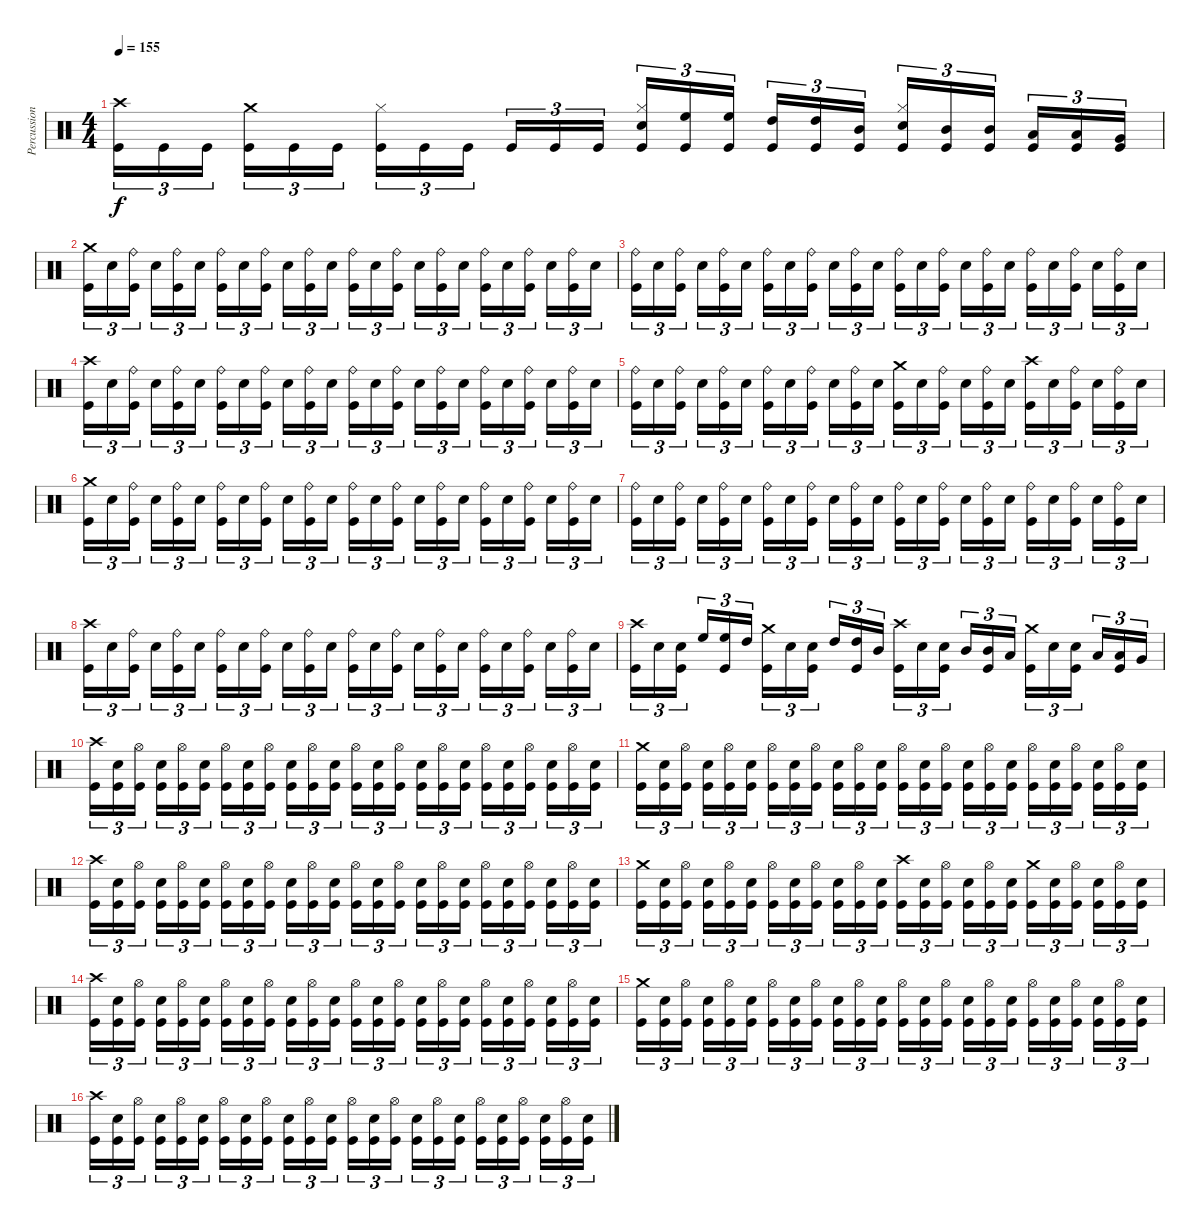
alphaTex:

\track ("Percussion" "Percussion") {instrument percussion}
\staff {score}
\articulation defaults
\ts (4 4)
\tempo 155
\clef neutral
\ks c
("Crash high (hit)" "Kick (hit)").16{tu (3 2) dy f} "Kick (hit)".16{tu (3 2)} "Kick (hit)".16{tu (3 2) beam splitsecondary} ("Crash medium (hit)" "Kick (hit)").16{tu (3 2)} "Kick (hit)".16{tu (3 2)} "Kick (hit)".16{tu (3 2)} ("Hi-Hat (closed)" "Kick (hit)").16{tu (3 2)} "Kick (hit)".16{tu (3 2)} "Kick (hit)".16{tu (3 2) beam splitsecondary} "Kick (hit)".16{tu (3 2)} "Kick (hit)".16{tu (3 2)} "Kick (hit)".16{tu (3 2)} ("Hi-Hat (closed)" "Snare (hit) 2" "Kick (hit)").16{tu (3 2)} ("High Floor Tom (hit)" "Kick (hit)").16{tu (3 2)} ("High Floor Tom (hit)" "Kick (hit)").16{tu (3 2) beam splitsecondary} ("High Tom (hit)" "Kick (hit)").16{tu (3 2)} ("High Tom (hit)" "Kick (hit)").16{tu (3 2)} ("Mid Tom (hit)" "Kick (hit)").16{tu (3 2)} ("Hi-Hat (closed)" "Snare (hit) 2" "Kick (hit)").16{tu (3 2)} ("Mid Tom (hit)" "Kick (hit)").16{tu (3 2)} ("Mid Tom (hit)" "Kick (hit)").16{tu (3 2) beam splitsecondary} ("Low Tom (hit)" "Kick (hit)").16{tu (3 2)} ("Low Tom (hit)" "Kick (hit)").16{tu (3 2)} ("Very Low Tom (hit)" "Kick (hit)").16{tu (3 2)} |
("Crash medium (hit)" "Kick (hit)").16{tu (3 2)} "Snare (hit) 2".16{tu (3 2)} ("Ride (bell)" "Kick (hit)").16{tu (3 2) beam splitsecondary} "Snare (hit) 2".16{tu (3 2)} ("Ride (bell)" "Kick (hit)").16{tu (3 2)} "Snare (hit) 2".16{tu (3 2)} ("Ride (bell)" "Kick (hit)").16{tu (3 2)} "Snare (hit) 2".16{tu (3 2)} ("Ride (bell)" "Kick (hit)").16{tu (3 2) beam splitsecondary} "Snare (hit) 2".16{tu (3 2)} ("Ride (bell)" "Kick (hit)").16{tu (3 2)} "Snare (hit) 2".16{tu (3 2)} ("Ride (bell)" "Kick (hit)").16{tu (3 2)} "Snare (hit) 2".16{tu (3 2)} ("Ride (bell)" "Kick (hit)").16{tu (3 2) beam splitsecondary} "Snare (hit) 2".16{tu (3 2)} ("Ride (bell)" "Kick (hit)").16{tu (3 2)} "Snare (hit) 2".16{tu (3 2)} ("Ride (bell)" "Kick (hit)").16{tu (3 2)} "Snare (hit) 2".16{tu (3 2)} ("Ride (bell)" "Kick (hit)").16{tu (3 2) beam splitsecondary} "Snare (hit) 2".16{tu (3 2)} ("Ride (bell)" "Kick (hit)").16{tu (3 2)} "Snare (hit) 2".16{tu (3 2)} |
("Ride (bell)" "Kick (hit)").16{tu (3 2)} "Snare (hit) 2".16{tu (3 2)} ("Ride (bell)" "Kick (hit)").16{tu (3 2) beam splitsecondary} "Snare (hit) 2".16{tu (3 2)} ("Ride (bell)" "Kick (hit)").16{tu (3 2)} "Snare (hit) 2".16{tu (3 2)} ("Ride (bell)" "Kick (hit)").16{tu (3 2)} "Snare (hit) 2".16{tu (3 2)} ("Ride (bell)" "Kick (hit)").16{tu (3 2) beam splitsecondary} "Snare (hit) 2".16{tu (3 2)} ("Ride (bell)" "Kick (hit)").16{tu (3 2)} "Snare (hit) 2".16{tu (3 2)} ("Ride (bell)" "Kick (hit)").16{tu (3 2)} "Snare (hit) 2".16{tu (3 2)} ("Ride (bell)" "Kick (hit)").16{tu (3 2) beam splitsecondary} "Snare (hit) 2".16{tu (3 2)} ("Ride (bell)" "Kick (hit)").16{tu (3 2)} "Snare (hit) 2".16{tu (3 2)} ("Ride (bell)" "Kick (hit)").16{tu (3 2)} "Snare (hit) 2".16{tu (3 2)} ("Ride (bell)" "Kick (hit)").16{tu (3 2) beam splitsecondary} "Snare (hit) 2".16{tu (3 2)} ("Ride (bell)" "Kick (hit)").16{tu (3 2)} "Snare (hit) 2".16{tu (3 2)} |
("Crash high (hit)" "Kick (hit)").16{tu (3 2)} "Snare (hit) 2".16{tu (3 2)} ("Ride (bell)" "Kick (hit)").16{tu (3 2) beam splitsecondary} "Snare (hit) 2".16{tu (3 2)} ("Ride (bell)" "Kick (hit)").16{tu (3 2)} "Snare (hit) 2".16{tu (3 2)} ("Ride (bell)" "Kick (hit)").16{tu (3 2)} "Snare (hit) 2".16{tu (3 2)} ("Ride (bell)" "Kick (hit)").16{tu (3 2) beam splitsecondary} "Snare (hit) 2".16{tu (3 2)} ("Ride (bell)" "Kick (hit)").16{tu (3 2)} "Snare (hit) 2".16{tu (3 2)} ("Ride (bell)" "Kick (hit)").16{tu (3 2)} "Snare (hit) 2".16{tu (3 2)} ("Ride (bell)" "Kick (hit)").16{tu (3 2) beam splitsecondary} "Snare (hit) 2".16{tu (3 2)} ("Ride (bell)" "Kick (hit)").16{tu (3 2)} "Snare (hit) 2".16{tu (3 2)} ("Ride (bell)" "Kick (hit)").16{tu (3 2)} "Snare (hit) 2".16{tu (3 2)} ("Ride (bell)" "Kick (hit)").16{tu (3 2) beam splitsecondary} "Snare (hit) 2".16{tu (3 2)} ("Ride (bell)" "Kick (hit)").16{tu (3 2)} "Snare (hit) 2".16{tu (3 2)} |
("Ride (bell)" "Kick (hit)").16{tu (3 2)} "Snare (hit) 2".16{tu (3 2)} ("Ride (bell)" "Kick (hit)").16{tu (3 2) beam splitsecondary} "Snare (hit) 2".16{tu (3 2)} ("Ride (bell)" "Kick (hit)").16{tu (3 2)} "Snare (hit) 2".16{tu (3 2)} ("Ride (bell)" "Kick (hit)").16{tu (3 2)} "Snare (hit) 2".16{tu (3 2)} ("Ride (bell)" "Kick (hit)").16{tu (3 2) beam splitsecondary} "Snare (hit) 2".16{tu (3 2)} ("Ride (bell)" "Kick (hit)").16{tu (3 2)} "Snare (hit) 2".16{tu (3 2)} ("Crash medium (hit)" "Kick (hit)").16{tu (3 2)} "Snare (hit) 2".16{tu (3 2)} ("Ride (bell)" "Kick (hit)").16{tu (3 2) beam splitsecondary} "Snare (hit) 2".16{tu (3 2)} ("Ride (bell)" "Kick (hit)").16{tu (3 2)} "Snare (hit) 2".16{tu (3 2)} ("Crash high (hit)" "Kick (hit)").16{tu (3 2)} "Snare (hit) 2".16{tu (3 2)} ("Ride (bell)" "Kick (hit)").16{tu (3 2) beam splitsecondary} "Snare (hit) 2".16{tu (3 2)} ("Ride (bell)" "Kick (hit)").16{tu (3 2)} "Snare (hit) 2".16{tu (3 2)} |
("Crash medium (hit)" "Kick (hit)").16{tu (3 2)} "Snare (hit) 2".16{tu (3 2)} ("Ride (bell)" "Kick (hit)").16{tu (3 2) beam splitsecondary} "Snare (hit) 2".16{tu (3 2)} ("Ride (bell)" "Kick (hit)").16{tu (3 2)} "Snare (hit) 2".16{tu (3 2)} ("Ride (bell)" "Kick (hit)").16{tu (3 2)} "Snare (hit) 2".16{tu (3 2)} ("Ride (bell)" "Kick (hit)").16{tu (3 2) beam splitsecondary} "Snare (hit) 2".16{tu (3 2)} ("Ride (bell)" "Kick (hit)").16{tu (3 2)} "Snare (hit) 2".16{tu (3 2)} ("Ride (bell)" "Kick (hit)").16{tu (3 2)} "Snare (hit) 2".16{tu (3 2)} ("Ride (bell)" "Kick (hit)").16{tu (3 2) beam splitsecondary} "Snare (hit) 2".16{tu (3 2)} ("Ride (bell)" "Kick (hit)").16{tu (3 2)} "Snare (hit) 2".16{tu (3 2)} ("Ride (bell)" "Kick (hit)").16{tu (3 2)} "Snare (hit) 2".16{tu (3 2)} ("Ride (bell)" "Kick (hit)").16{tu (3 2) beam splitsecondary} "Snare (hit) 2".16{tu (3 2)} ("Ride (bell)" "Kick (hit)").16{tu (3 2)} "Snare (hit) 2".16{tu (3 2)} |
("Ride (bell)" "Kick (hit)").16{tu (3 2)} "Snare (hit) 2".16{tu (3 2)} ("Ride (bell)" "Kick (hit)").16{tu (3 2) beam splitsecondary} "Snare (hit) 2".16{tu (3 2)} ("Ride (bell)" "Kick (hit)").16{tu (3 2)} "Snare (hit) 2".16{tu (3 2)} ("Ride (bell)" "Kick (hit)").16{tu (3 2)} "Snare (hit) 2".16{tu (3 2)} ("Ride (bell)" "Kick (hit)").16{tu (3 2) beam splitsecondary} "Snare (hit) 2".16{tu (3 2)} ("Ride (bell)" "Kick (hit)").16{tu (3 2)} "Snare (hit) 2".16{tu (3 2)} ("Ride (bell)" "Kick (hit)").16{tu (3 2)} "Snare (hit) 2".16{tu (3 2)} ("Ride (bell)" "Kick (hit)").16{tu (3 2) beam splitsecondary} "Snare (hit) 2".16{tu (3 2)} ("Ride (bell)" "Kick (hit)").16{tu (3 2)} "Snare (hit) 2".16{tu (3 2)} ("Ride (bell)" "Kick (hit)").16{tu (3 2)} "Snare (hit) 2".16{tu (3 2)} ("Ride (bell)" "Kick (hit)").16{tu (3 2) beam splitsecondary} "Snare (hit) 2".16{tu (3 2)} ("Ride (bell)" "Kick (hit)").16{tu (3 2)} "Snare (hit) 2".16{tu (3 2)} |
("Crash high (hit)" "Kick (hit)").16{tu (3 2)} "Snare (hit) 2".16{tu (3 2)} ("Ride (bell)" "Kick (hit)").16{tu (3 2) beam splitsecondary} "Snare (hit) 2".16{tu (3 2)} ("Ride (bell)" "Kick (hit)").16{tu (3 2)} "Snare (hit) 2".16{tu (3 2)} ("Ride (bell)" "Kick (hit)").16{tu (3 2)} "Snare (hit) 2".16{tu (3 2)} ("Ride (bell)" "Kick (hit)").16{tu (3 2) beam splitsecondary} "Snare (hit) 2".16{tu (3 2)} ("Ride (bell)" "Kick (hit)").16{tu (3 2)} "Snare (hit) 2".16{tu (3 2)} ("Ride (bell)" "Kick (hit)").16{tu (3 2)} "Snare (hit) 2".16{tu (3 2)} ("Ride (bell)" "Kick (hit)").16{tu (3 2) beam splitsecondary} "Snare (hit) 2".16{tu (3 2)} ("Ride (bell)" "Kick (hit)").16{tu (3 2)} "Snare (hit) 2".16{tu (3 2)} ("Ride (bell)" "Kick (hit)").16{tu (3 2)} "Snare (hit) 2".16{tu (3 2)} ("Ride (bell)" "Kick (hit)").16{tu (3 2) beam splitsecondary} "Snare (hit) 2".16{tu (3 2)} ("Ride (bell)" "Kick (hit)").16{tu (3 2)} "Snare (hit) 2".16{tu (3 2)} |
("Crash high (hit)" "Kick (hit)").16{tu (3 2)} "Snare (hit) 2".16{tu (3 2)} ("Snare (hit) 2" "Kick (hit)").16{tu (3 2) beam splitsecondary} "High Floor Tom (hit)".16{tu (3 2)} ("High Floor Tom (hit)" "Kick (hit)").16{tu (3 2)} "High Tom (hit)".16{tu (3 2)} ("Crash medium (hit)" "Kick (hit)").16{tu (3 2)} "Snare (hit) 2".16{tu (3 2)} ("Snare (hit) 2" "Kick (hit)").16{tu (3 2) beam splitsecondary} "High Tom (hit)".16{tu (3 2)} ("High Tom (hit)" "Kick (hit)").16{tu (3 2)} "Mid Tom (hit)".16{tu (3 2)} ("Crash high (hit)" "Kick (hit)").16{tu (3 2)} "Snare (hit) 2".16{tu (3 2)} ("Snare (hit) 2" "Kick (hit)").16{tu (3 2) beam splitsecondary} "Mid Tom (hit)".16{tu (3 2)} ("Mid Tom (hit)" "Kick (hit)").16{tu (3 2)} "Low Tom (hit)".16{tu (3 2)} ("Crash medium (hit)" "Kick (hit)").16{tu (3 2)} "Snare (hit) 2".16{tu (3 2)} ("Snare (hit) 2" "Kick (hit)").16{tu (3 2) beam splitsecondary} "Low Tom (hit)".16{tu (3 2)} ("Low Tom (hit)" "Kick (hit)").16{tu (3 2)} "Very Low Tom (hit)".16{tu (3 2)} |
("Crash high (hit)" "Kick (hit)").16{tu (3 2)} ("Snare (hit) 2" "Kick (hit)").16{tu (3 2)} ("Hi-Hat (open)" "Kick (hit)").16{tu (3 2) beam splitsecondary} ("Snare (hit) 2" "Kick (hit)").16{tu (3 2)} ("Hi-Hat (open)" "Kick (hit)").16{tu (3 2)} ("Snare (hit) 2" "Kick (hit)").16{tu (3 2)} ("Hi-Hat (open)" "Kick (hit)").16{tu (3 2)} ("Snare (hit) 2" "Kick (hit)").16{tu (3 2)} ("Hi-Hat (open)" "Kick (hit)").16{tu (3 2) beam splitsecondary} ("Snare (hit) 2" "Kick (hit)").16{tu (3 2)} ("Hi-Hat (open)" "Kick (hit)").16{tu (3 2)} ("Snare (hit) 2" "Kick (hit)").16{tu (3 2)} ("Hi-Hat (open)" "Kick (hit)").16{tu (3 2)} ("Snare (hit) 2" "Kick (hit)").16{tu (3 2)} ("Hi-Hat (open)" "Kick (hit)").16{tu (3 2) beam splitsecondary} ("Snare (hit) 2" "Kick (hit)").16{tu (3 2)} ("Hi-Hat (open)" "Kick (hit)").16{tu (3 2)} ("Snare (hit) 2" "Kick (hit)").16{tu (3 2)} ("Hi-Hat (open)" "Kick (hit)").16{tu (3 2)} ("Snare (hit) 2" "Kick (hit)").16{tu (3 2)} ("Hi-Hat (open)" "Kick (hit)").16{tu (3 2) beam splitsecondary} ("Snare (hit) 2" "Kick (hit)").16{tu (3 2)} ("Hi-Hat (open)" "Kick (hit)").16{tu (3 2)} ("Snare (hit) 2" "Kick (hit)").16{tu (3 2)} |
("Crash medium (hit)" "Kick (hit)").16{tu (3 2)} ("Snare (hit) 2" "Kick (hit)").16{tu (3 2)} ("Hi-Hat (open)" "Kick (hit)").16{tu (3 2) beam splitsecondary} ("Snare (hit) 2" "Kick (hit)").16{tu (3 2)} ("Hi-Hat (open)" "Kick (hit)").16{tu (3 2)} ("Snare (hit) 2" "Kick (hit)").16{tu (3 2)} ("Hi-Hat (open)" "Kick (hit)").16{tu (3 2)} ("Snare (hit) 2" "Kick (hit)").16{tu (3 2)} ("Hi-Hat (open)" "Kick (hit)").16{tu (3 2) beam splitsecondary} ("Snare (hit) 2" "Kick (hit)").16{tu (3 2)} ("Hi-Hat (open)" "Kick (hit)").16{tu (3 2)} ("Snare (hit) 2" "Kick (hit)").16{tu (3 2)} ("Hi-Hat (open)" "Kick (hit)").16{tu (3 2)} ("Snare (hit) 2" "Kick (hit)").16{tu (3 2)} ("Hi-Hat (open)" "Kick (hit)").16{tu (3 2) beam splitsecondary} ("Snare (hit) 2" "Kick (hit)").16{tu (3 2)} ("Hi-Hat (open)" "Kick (hit)").16{tu (3 2)} ("Snare (hit) 2" "Kick (hit)").16{tu (3 2)} ("Hi-Hat (open)" "Kick (hit)").16{tu (3 2)} ("Snare (hit) 2" "Kick (hit)").16{tu (3 2)} ("Hi-Hat (open)" "Kick (hit)").16{tu (3 2) beam splitsecondary} ("Snare (hit) 2" "Kick (hit)").16{tu (3 2)} ("Hi-Hat (open)" "Kick (hit)").16{tu (3 2)} ("Snare (hit) 2" "Kick (hit)").16{tu (3 2)} |
("Crash high (hit)" "Kick (hit)").16{tu (3 2)} ("Snare (hit) 2" "Kick (hit)").16{tu (3 2)} ("Hi-Hat (open)" "Kick (hit)").16{tu (3 2) beam splitsecondary} ("Snare (hit) 2" "Kick (hit)").16{tu (3 2)} ("Hi-Hat (open)" "Kick (hit)").16{tu (3 2)} ("Snare (hit) 2" "Kick (hit)").16{tu (3 2)} ("Hi-Hat (open)" "Kick (hit)").16{tu (3 2)} ("Snare (hit) 2" "Kick (hit)").16{tu (3 2)} ("Hi-Hat (open)" "Kick (hit)").16{tu (3 2) beam splitsecondary} ("Snare (hit) 2" "Kick (hit)").16{tu (3 2)} ("Hi-Hat (open)" "Kick (hit)").16{tu (3 2)} ("Snare (hit) 2" "Kick (hit)").16{tu (3 2)} ("Hi-Hat (open)" "Kick (hit)").16{tu (3 2)} ("Snare (hit) 2" "Kick (hit)").16{tu (3 2)} ("Hi-Hat (open)" "Kick (hit)").16{tu (3 2) beam splitsecondary} ("Snare (hit) 2" "Kick (hit)").16{tu (3 2)} ("Hi-Hat (open)" "Kick (hit)").16{tu (3 2)} ("Snare (hit) 2" "Kick (hit)").16{tu (3 2)} ("Hi-Hat (open)" "Kick (hit)").16{tu (3 2)} ("Snare (hit) 2" "Kick (hit)").16{tu (3 2)} ("Hi-Hat (open)" "Kick (hit)").16{tu (3 2) beam splitsecondary} ("Snare (hit) 2" "Kick (hit)").16{tu (3 2)} ("Hi-Hat (open)" "Kick (hit)").16{tu (3 2)} ("Snare (hit) 2" "Kick (hit)").16{tu (3 2)} |
("Crash medium (hit)" "Kick (hit)").16{tu (3 2)} ("Snare (hit) 2" "Kick (hit)").16{tu (3 2)} ("Hi-Hat (open)" "Kick (hit)").16{tu (3 2) beam splitsecondary} ("Snare (hit) 2" "Kick (hit)").16{tu (3 2)} ("Hi-Hat (open)" "Kick (hit)").16{tu (3 2)} ("Snare (hit) 2" "Kick (hit)").16{tu (3 2)} ("Hi-Hat (open)" "Kick (hit)").16{tu (3 2)} ("Snare (hit) 2" "Kick (hit)").16{tu (3 2)} ("Hi-Hat (open)" "Kick (hit)").16{tu (3 2) beam splitsecondary} ("Snare (hit) 2" "Kick (hit)").16{tu (3 2)} ("Hi-Hat (open)" "Kick (hit)").16{tu (3 2)} ("Snare (hit) 2" "Kick (hit)").16{tu (3 2)} ("Crash high (hit)" "Kick (hit)").16{tu (3 2)} ("Snare (hit) 2" "Kick (hit)").16{tu (3 2)} ("Hi-Hat (open)" "Kick (hit)").16{tu (3 2) beam splitsecondary} ("Snare (hit) 2" "Kick (hit)").16{tu (3 2)} ("Hi-Hat (open)" "Kick (hit)").16{tu (3 2)} ("Snare (hit) 2" "Kick (hit)").16{tu (3 2)} ("Crash medium (hit)" "Kick (hit)").16{tu (3 2)} ("Snare (hit) 2" "Kick (hit)").16{tu (3 2)} ("Hi-Hat (open)" "Kick (hit)").16{tu (3 2) beam splitsecondary} ("Snare (hit) 2" "Kick (hit)").16{tu (3 2)} ("Hi-Hat (open)" "Kick (hit)").16{tu (3 2)} ("Snare (hit) 2" "Kick (hit)").16{tu (3 2)} |
("Crash high (hit)" "Kick (hit)").16{tu (3 2)} ("Snare (hit) 2" "Kick (hit)").16{tu (3 2)} ("Hi-Hat (open)" "Kick (hit)").16{tu (3 2) beam splitsecondary} ("Snare (hit) 2" "Kick (hit)").16{tu (3 2)} ("Hi-Hat (open)" "Kick (hit)").16{tu (3 2)} ("Snare (hit) 2" "Kick (hit)").16{tu (3 2)} ("Hi-Hat (open)" "Kick (hit)").16{tu (3 2)} ("Snare (hit) 2" "Kick (hit)").16{tu (3 2)} ("Hi-Hat (open)" "Kick (hit)").16{tu (3 2) beam splitsecondary} ("Snare (hit) 2" "Kick (hit)").16{tu (3 2)} ("Hi-Hat (open)" "Kick (hit)").16{tu (3 2)} ("Snare (hit) 2" "Kick (hit)").16{tu (3 2)} ("Hi-Hat (open)" "Kick (hit)").16{tu (3 2)} ("Snare (hit) 2" "Kick (hit)").16{tu (3 2)} ("Hi-Hat (open)" "Kick (hit)").16{tu (3 2) beam splitsecondary} ("Snare (hit) 2" "Kick (hit)").16{tu (3 2)} ("Hi-Hat (open)" "Kick (hit)").16{tu (3 2)} ("Snare (hit) 2" "Kick (hit)").16{tu (3 2)} ("Hi-Hat (open)" "Kick (hit)").16{tu (3 2)} ("Snare (hit) 2" "Kick (hit)").16{tu (3 2)} ("Hi-Hat (open)" "Kick (hit)").16{tu (3 2) beam splitsecondary} ("Snare (hit) 2" "Kick (hit)").16{tu (3 2)} ("Hi-Hat (open)" "Kick (hit)").16{tu (3 2)} ("Snare (hit) 2" "Kick (hit)").16{tu (3 2)} |
("Crash medium (hit)" "Kick (hit)").16{tu (3 2)} ("Snare (hit) 2" "Kick (hit)").16{tu (3 2)} ("Hi-Hat (open)" "Kick (hit)").16{tu (3 2) beam splitsecondary} ("Snare (hit) 2" "Kick (hit)").16{tu (3 2)} ("Hi-Hat (open)" "Kick (hit)").16{tu (3 2)} ("Snare (hit) 2" "Kick (hit)").16{tu (3 2)} ("Hi-Hat (open)" "Kick (hit)").16{tu (3 2)} ("Snare (hit) 2" "Kick (hit)").16{tu (3 2)} ("Hi-Hat (open)" "Kick (hit)").16{tu (3 2) beam splitsecondary} ("Snare (hit) 2" "Kick (hit)").16{tu (3 2)} ("Hi-Hat (open)" "Kick (hit)").16{tu (3 2)} ("Snare (hit) 2" "Kick (hit)").16{tu (3 2)} ("Hi-Hat (open)" "Kick (hit)").16{tu (3 2)} ("Snare (hit) 2" "Kick (hit)").16{tu (3 2)} ("Hi-Hat (open)" "Kick (hit)").16{tu (3 2) beam splitsecondary} ("Snare (hit) 2" "Kick (hit)").16{tu (3 2)} ("Hi-Hat (open)" "Kick (hit)").16{tu (3 2)} ("Snare (hit) 2" "Kick (hit)").16{tu (3 2)} ("Hi-Hat (open)" "Kick (hit)").16{tu (3 2)} ("Snare (hit) 2" "Kick (hit)").16{tu (3 2)} ("Hi-Hat (open)" "Kick (hit)").16{tu (3 2) beam splitsecondary} ("Snare (hit) 2" "Kick (hit)").16{tu (3 2)} ("Hi-Hat (open)" "Kick (hit)").16{tu (3 2)} ("Snare (hit) 2" "Kick (hit)").16{tu (3 2)} |
("Crash high (hit)" "Kick (hit)").16{tu (3 2)} ("Snare (hit) 2" "Kick (hit)").16{tu (3 2)} ("Hi-Hat (open)" "Kick (hit)").16{tu (3 2) beam splitsecondary} ("Snare (hit) 2" "Kick (hit)").16{tu (3 2)} ("Hi-Hat (open)" "Kick (hit)").16{tu (3 2)} ("Snare (hit) 2" "Kick (hit)").16{tu (3 2)} ("Hi-Hat (open)" "Kick (hit)").16{tu (3 2)} ("Snare (hit) 2" "Kick (hit)").16{tu (3 2)} ("Hi-Hat (open)" "Kick (hit)").16{tu (3 2) beam splitsecondary} ("Snare (hit) 2" "Kick (hit)").16{tu (3 2)} ("Hi-Hat (open)" "Kick (hit)").16{tu (3 2)} ("Snare (hit) 2" "Kick (hit)").16{tu (3 2)} ("Hi-Hat (open)" "Kick (hit)").16{tu (3 2)} ("Snare (hit) 2" "Kick (hit)").16{tu (3 2)} ("Hi-Hat (open)" "Kick (hit)").16{tu (3 2) beam splitsecondary} ("Snare (hit) 2" "Kick (hit)").16{tu (3 2)} ("Hi-Hat (open)" "Kick (hit)").16{tu (3 2)} ("Snare (hit) 2" "Kick (hit)").16{tu (3 2)} ("Hi-Hat (open)" "Kick (hit)").16{tu (3 2)} ("Snare (hit) 2" "Kick (hit)").16{tu (3 2)} ("Hi-Hat (open)" "Kick (hit)").16{tu (3 2) beam splitsecondary} ("Snare (hit) 2" "Kick (hit)").16{tu (3 2)} ("Hi-Hat (open)" "Kick (hit)").16{tu (3 2)} ("Snare (hit) 2" "Kick (hit)").16{tu (3 2)}
